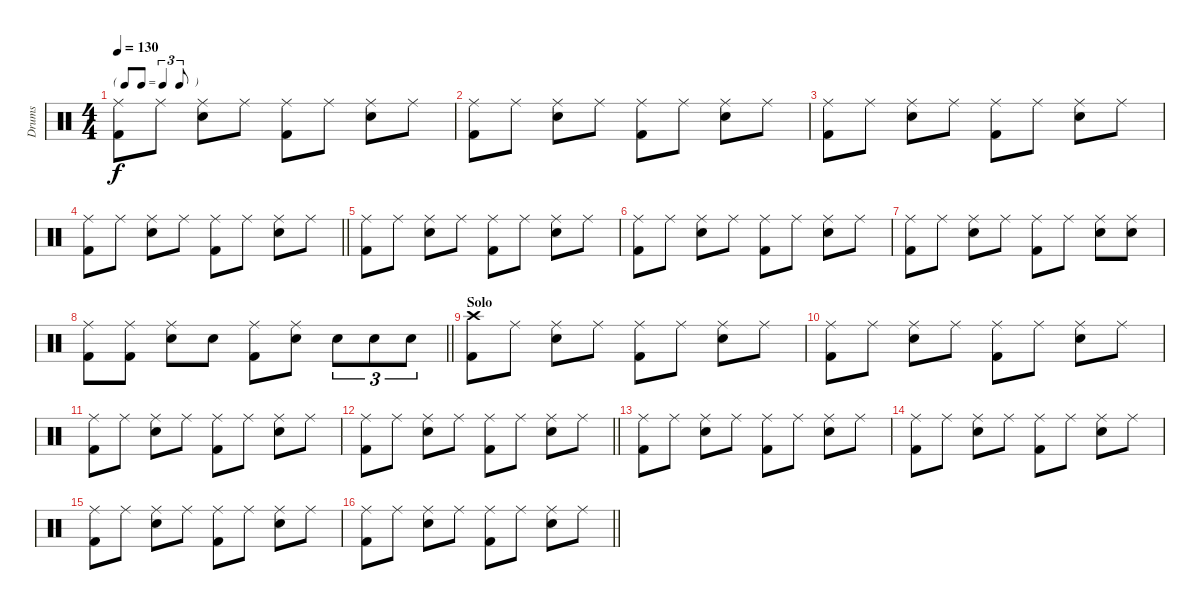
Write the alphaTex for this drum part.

\track ("Drums" "Drums") {instrument percussion}
\staff {score}
\articulation defaults
\ts (4 4)
\tf triplet8th
\tempo 130
\clef neutral
\ks c
("Ride (middle)" "Kick (hit) 2").8{dy f} "Ride (middle)".8 ("Ride (middle)" "Snare (hit) 2").8 "Ride (middle)".8 ("Ride (middle)" "Kick (hit) 2").8 "Ride (middle)".8 ("Ride (middle)" "Snare (hit) 2").8 "Ride (middle)".8 |
("Ride (middle)" "Kick (hit) 2").8 "Ride (middle)".8 ("Ride (middle)" "Snare (hit) 2").8 "Ride (middle)".8 ("Ride (middle)" "Kick (hit) 2").8 "Ride (middle)".8 ("Ride (middle)" "Snare (hit) 2").8 "Ride (middle)".8 |
("Ride (middle)" "Kick (hit) 2").8 "Ride (middle)".8 ("Ride (middle)" "Snare (hit) 2").8 "Ride (middle)".8 ("Ride (middle)" "Kick (hit) 2").8 "Ride (middle)".8 ("Ride (middle)" "Snare (hit) 2").8 "Ride (middle)".8 |
\barLineRight lightlight
("Ride (middle)" "Kick (hit) 2").8 "Ride (middle)".8 ("Ride (middle)" "Snare (hit) 2").8 "Ride (middle)".8 ("Ride (middle)" "Kick (hit) 2").8 "Ride (middle)".8 ("Ride (middle)" "Snare (hit) 2").8 "Ride (middle)".8 |
("Ride (middle)" "Kick (hit) 2").8 "Ride (middle)".8 ("Ride (middle)" "Snare (hit) 2").8 "Ride (middle)".8 ("Ride (middle)" "Kick (hit) 2").8 "Ride (middle)".8 ("Ride (middle)" "Snare (hit) 2").8 "Ride (middle)".8 |
("Ride (middle)" "Kick (hit) 2").8 "Ride (middle)".8 ("Ride (middle)" "Snare (hit) 2").8 "Ride (middle)".8 ("Ride (middle)" "Kick (hit) 2").8 "Ride (middle)".8 ("Ride (middle)" "Snare (hit) 2").8 "Ride (middle)".8 |
("Ride (middle)" "Kick (hit) 2").8 "Ride (middle)".8 ("Ride (middle)" "Snare (hit) 2").8 "Ride (middle)".8 ("Ride (middle)" "Kick (hit) 2").8 "Ride (middle)".8 ("Ride (middle)" "Snare (hit) 2").8 ("Ride (middle)" "Snare (hit) 2").8 |
\barLineRight lightlight
("Ride (middle)" "Kick (hit) 2").8 ("Ride (middle)" "Kick (hit) 2").8 ("Ride (middle)" "Snare (hit) 2").8 "Snare (hit) 2".8 ("Ride (middle)" "Kick (hit) 2").8 ("Ride (middle)" "Snare (hit) 2").8 "Snare (hit) 2".8{tu (3 2)} "Snare (hit) 2".8{tu (3 2)} "Snare (hit) 2".8{tu (3 2)} |
\section ("" "Solo")
("Crash high (hit)" "Kick (hit) 2").8 "Ride (middle)".8 ("Ride (middle)" "Snare (hit) 2").8 "Ride (middle)".8 ("Ride (middle)" "Kick (hit) 2").8 "Ride (middle)".8 ("Ride (middle)" "Snare (hit) 2").8 "Ride (middle)".8 |
("Ride (middle)" "Kick (hit) 2").8 "Ride (middle)".8 ("Ride (middle)" "Snare (hit) 2").8 "Ride (middle)".8 ("Ride (middle)" "Kick (hit) 2").8 "Ride (middle)".8 ("Ride (middle)" "Snare (hit) 2").8 "Ride (middle)".8 |
("Ride (middle)" "Kick (hit) 2").8 "Ride (middle)".8 ("Ride (middle)" "Snare (hit) 2").8 "Ride (middle)".8 ("Ride (middle)" "Kick (hit) 2").8 "Ride (middle)".8 ("Ride (middle)" "Snare (hit) 2").8 "Ride (middle)".8 |
\barLineRight lightlight
("Ride (middle)" "Kick (hit) 2").8 "Ride (middle)".8 ("Ride (middle)" "Snare (hit) 2").8 "Ride (middle)".8 ("Ride (middle)" "Kick (hit) 2").8 "Ride (middle)".8 ("Ride (middle)" "Snare (hit) 2").8 "Ride (middle)".8 |
("Ride (middle)" "Kick (hit) 2").8 "Ride (middle)".8 ("Ride (middle)" "Snare (hit) 2").8 "Ride (middle)".8 ("Ride (middle)" "Kick (hit) 2").8 "Ride (middle)".8 ("Ride (middle)" "Snare (hit) 2").8 "Ride (middle)".8 |
("Ride (middle)" "Kick (hit) 2").8 "Ride (middle)".8 ("Ride (middle)" "Snare (hit) 2").8 "Ride (middle)".8 ("Ride (middle)" "Kick (hit) 2").8 "Ride (middle)".8 ("Ride (middle)" "Snare (hit) 2").8 "Ride (middle)".8 |
("Ride (middle)" "Kick (hit) 2").8 "Ride (middle)".8 ("Ride (middle)" "Snare (hit) 2").8 "Ride (middle)".8 ("Ride (middle)" "Kick (hit) 2").8 "Ride (middle)".8 ("Ride (middle)" "Snare (hit) 2").8 "Ride (middle)".8 |
\barLineRight lightlight
("Ride (middle)" "Kick (hit) 2").8 "Ride (middle)".8 ("Ride (middle)" "Snare (hit) 2").8 "Ride (middle)".8 ("Ride (middle)" "Kick (hit) 2").8 "Ride (middle)".8 ("Ride (middle)" "Snare (hit) 2").8 "Ride (middle)".8
